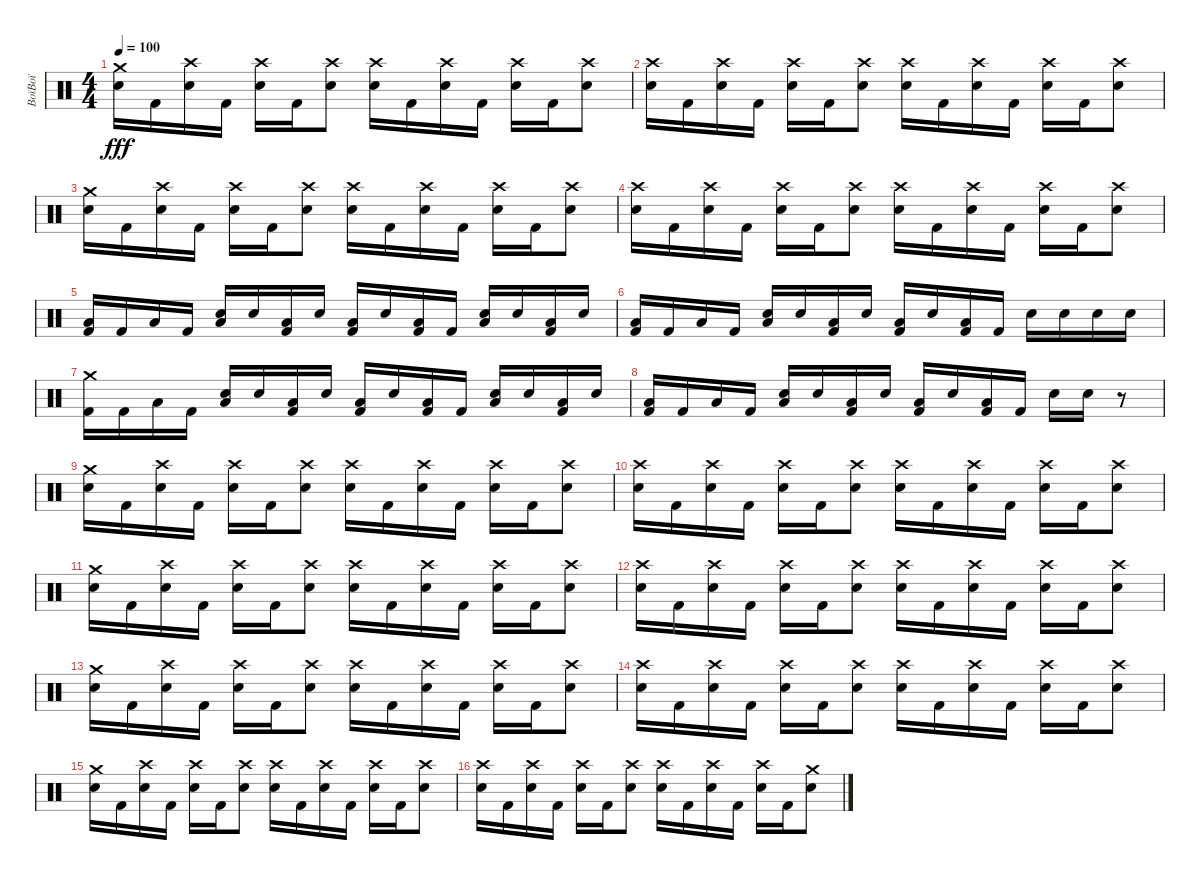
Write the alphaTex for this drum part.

\track ("BoïBoï" "BoïBoï") {instrument percussion}
\staff {score}
\articulation defaults
\ts (4 4)
\tempo 100
\clef neutral
\ks c
("Crash medium (hit)" "Electric Snare (hit)").16{dy fff} "Kick (hit) 2".16 ("Crash high (hit)" "Electric Snare (hit)").16 "Kick (hit) 2".16 ("Crash high (hit)" "Electric Snare (hit)").16 "Kick (hit) 2".16 ("Crash high (hit)" "Electric Snare (hit)").8 ("Crash high (hit)" "Electric Snare (hit)").16 "Kick (hit) 2".16 ("Crash high (hit)" "Electric Snare (hit)").16 "Kick (hit) 2".16 ("Crash high (hit)" "Electric Snare (hit)").16 "Kick (hit) 2".16 ("Crash high (hit)" "Electric Snare (hit)").8 |
("Crash high (hit)" "Electric Snare (hit)").16 "Kick (hit) 2".16 ("Crash high (hit)" "Electric Snare (hit)").16 "Kick (hit) 2".16 ("Crash high (hit)" "Electric Snare (hit)").16 "Kick (hit) 2".16 ("Crash high (hit)" "Electric Snare (hit)").8 ("Crash high (hit)" "Electric Snare (hit)").16 "Kick (hit) 2".16 ("Crash high (hit)" "Electric Snare (hit)").16 "Kick (hit) 2".16 ("Crash high (hit)" "Electric Snare (hit)").16 "Kick (hit) 2".16 ("Crash high (hit)" "Electric Snare (hit)").8 |
("Crash medium (hit)" "Electric Snare (hit)").16 "Kick (hit) 2".16 ("Crash high (hit)" "Electric Snare (hit)").16 "Kick (hit) 2".16 ("Crash high (hit)" "Electric Snare (hit)").16 "Kick (hit) 2".16 ("Crash high (hit)" "Electric Snare (hit)").8 ("Crash high (hit)" "Electric Snare (hit)").16 "Kick (hit) 2".16 ("Crash high (hit)" "Electric Snare (hit)").16 "Kick (hit) 2".16 ("Crash high (hit)" "Electric Snare (hit)").16 "Kick (hit) 2".16 ("Crash high (hit)" "Electric Snare (hit)").8 |
("Crash high (hit)" "Electric Snare (hit)").16 "Kick (hit) 2".16 ("Crash high (hit)" "Electric Snare (hit)").16 "Kick (hit) 2".16 ("Crash high (hit)" "Electric Snare (hit)").16 "Kick (hit) 2".16 ("Crash high (hit)" "Electric Snare (hit)").8 ("Crash high (hit)" "Electric Snare (hit)").16 "Kick (hit) 2".16 ("Crash high (hit)" "Electric Snare (hit)").16 "Kick (hit) 2".16 ("Crash high (hit)" "Electric Snare (hit)").16 "Kick (hit) 2".16 ("Crash high (hit)" "Electric Snare (hit)").8 |
("Low Floor Tom (hit)" "Kick (hit) 2").16 "Kick (hit) 2".16 "Low Floor Tom (hit)".16 "Kick (hit) 2".16 ("Electric Snare (hit)" "Low Floor Tom (hit)").16 "Electric Snare (hit)".16 ("Low Floor Tom (hit)" "Kick (hit) 2").16 "Electric Snare (hit)".16 ("Low Floor Tom (hit)" "Kick (hit) 2").16 "Electric Snare (hit)".16 ("Low Floor Tom (hit)" "Kick (hit) 2").16 "Kick (hit) 2".16 ("Electric Snare (hit)" "Low Floor Tom (hit)").16 "Electric Snare (hit)".16 ("Low Floor Tom (hit)" "Kick (hit) 2").16 "Electric Snare (hit)".16 |
("Low Floor Tom (hit)" "Kick (hit) 2").16 "Kick (hit) 2".16 "Low Floor Tom (hit)".16 "Kick (hit) 2".16 ("Electric Snare (hit)" "Low Floor Tom (hit)").16 "Electric Snare (hit)".16 ("Low Floor Tom (hit)" "Kick (hit) 2").16 "Electric Snare (hit)".16 ("Low Floor Tom (hit)" "Kick (hit) 2").16 "Electric Snare (hit)".16 ("Low Floor Tom (hit)" "Kick (hit) 2").16 "Kick (hit) 2".16 "Electric Snare (hit)".16 "Electric Snare (hit)".16 "Electric Snare (hit)".16 "Electric Snare (hit)".16 |
("Crash medium (hit)" "Kick (hit) 2").16 "Kick (hit) 2".16 "Low Floor Tom (hit)".16 "Kick (hit) 2".16 ("Electric Snare (hit)" "Low Floor Tom (hit)").16 "Electric Snare (hit)".16 ("Low Floor Tom (hit)" "Kick (hit) 2").16 "Electric Snare (hit)".16 ("Low Floor Tom (hit)" "Kick (hit) 2").16 "Electric Snare (hit)".16 ("Low Floor Tom (hit)" "Kick (hit) 2").16 "Kick (hit) 2".16 ("Electric Snare (hit)" "Low Floor Tom (hit)").16 "Electric Snare (hit)".16 ("Low Floor Tom (hit)" "Kick (hit) 2").16 "Electric Snare (hit)".16 |
("Low Floor Tom (hit)" "Kick (hit) 2").16 "Kick (hit) 2".16 "Low Floor Tom (hit)".16 "Kick (hit) 2".16 ("Electric Snare (hit)" "Low Floor Tom (hit)").16 "Electric Snare (hit)".16 ("Low Floor Tom (hit)" "Kick (hit) 2").16 "Electric Snare (hit)".16 ("Low Floor Tom (hit)" "Kick (hit) 2").16 "Electric Snare (hit)".16 ("Low Floor Tom (hit)" "Kick (hit) 2").16 "Kick (hit) 2".16 "Electric Snare (hit)".16 "Electric Snare (hit)".16 r.8 |
("Crash medium (hit)" "Electric Snare (hit)").16 "Kick (hit) 2".16 ("Crash high (hit)" "Electric Snare (hit)").16 "Kick (hit) 2".16 ("Crash high (hit)" "Electric Snare (hit)").16 "Kick (hit) 2".16 ("Crash high (hit)" "Electric Snare (hit)").8 ("Crash high (hit)" "Electric Snare (hit)").16 "Kick (hit) 2".16 ("Crash high (hit)" "Electric Snare (hit)").16 "Kick (hit) 2".16 ("Crash high (hit)" "Electric Snare (hit)").16 "Kick (hit) 2".16 ("Crash high (hit)" "Electric Snare (hit)").8 |
("Crash high (hit)" "Electric Snare (hit)").16 "Kick (hit) 2".16 ("Crash high (hit)" "Electric Snare (hit)").16 "Kick (hit) 2".16 ("Crash high (hit)" "Electric Snare (hit)").16 "Kick (hit) 2".16 ("Crash high (hit)" "Electric Snare (hit)").8 ("Crash high (hit)" "Electric Snare (hit)").16 "Kick (hit) 2".16 ("Crash high (hit)" "Electric Snare (hit)").16 "Kick (hit) 2".16 ("Crash high (hit)" "Electric Snare (hit)").16 "Kick (hit) 2".16 ("Crash high (hit)" "Electric Snare (hit)").8 |
("Crash medium (hit)" "Electric Snare (hit)").16 "Kick (hit) 2".16 ("Crash high (hit)" "Electric Snare (hit)").16 "Kick (hit) 2".16 ("Crash high (hit)" "Electric Snare (hit)").16 "Kick (hit) 2".16 ("Crash high (hit)" "Electric Snare (hit)").8 ("Crash high (hit)" "Electric Snare (hit)").16 "Kick (hit) 2".16 ("Crash high (hit)" "Electric Snare (hit)").16 "Kick (hit) 2".16 ("Crash high (hit)" "Electric Snare (hit)").16 "Kick (hit) 2".16 ("Crash high (hit)" "Electric Snare (hit)").8 |
("Crash high (hit)" "Electric Snare (hit)").16 "Kick (hit) 2".16 ("Crash high (hit)" "Electric Snare (hit)").16 "Kick (hit) 2".16 ("Crash high (hit)" "Electric Snare (hit)").16 "Kick (hit) 2".16 ("Crash high (hit)" "Electric Snare (hit)").8 ("Crash high (hit)" "Electric Snare (hit)").16 "Kick (hit) 2".16 ("Crash high (hit)" "Electric Snare (hit)").16 "Kick (hit) 2".16 ("Crash high (hit)" "Electric Snare (hit)").16 "Kick (hit) 2".16 ("Crash high (hit)" "Electric Snare (hit)").8 |
("Crash medium (hit)" "Electric Snare (hit)").16 "Kick (hit) 2".16 ("Crash high (hit)" "Electric Snare (hit)").16 "Kick (hit) 2".16 ("Crash high (hit)" "Electric Snare (hit)").16 "Kick (hit) 2".16 ("Crash high (hit)" "Electric Snare (hit)").8 ("Crash high (hit)" "Electric Snare (hit)").16 "Kick (hit) 2".16 ("Crash high (hit)" "Electric Snare (hit)").16 "Kick (hit) 2".16 ("Crash high (hit)" "Electric Snare (hit)").16 "Kick (hit) 2".16 ("Crash high (hit)" "Electric Snare (hit)").8 |
("Crash high (hit)" "Electric Snare (hit)").16 "Kick (hit) 2".16 ("Crash high (hit)" "Electric Snare (hit)").16 "Kick (hit) 2".16 ("Crash high (hit)" "Electric Snare (hit)").16 "Kick (hit) 2".16 ("Crash high (hit)" "Electric Snare (hit)").8 ("Crash high (hit)" "Electric Snare (hit)").16 "Kick (hit) 2".16 ("Crash high (hit)" "Electric Snare (hit)").16 "Kick (hit) 2".16 ("Crash high (hit)" "Electric Snare (hit)").16 "Kick (hit) 2".16 ("Crash high (hit)" "Electric Snare (hit)").8 |
("Crash medium (hit)" "Electric Snare (hit)").16 "Kick (hit) 2".16 ("Crash high (hit)" "Electric Snare (hit)").16 "Kick (hit) 2".16 ("Crash high (hit)" "Electric Snare (hit)").16 "Kick (hit) 2".16 ("Crash high (hit)" "Electric Snare (hit)").8 ("Crash high (hit)" "Electric Snare (hit)").16 "Kick (hit) 2".16 ("Crash high (hit)" "Electric Snare (hit)").16 "Kick (hit) 2".16 ("Crash high (hit)" "Electric Snare (hit)").16 "Kick (hit) 2".16 ("Crash high (hit)" "Electric Snare (hit)").8 |
("Crash high (hit)" "Electric Snare (hit)").16 "Kick (hit) 2".16 ("Crash high (hit)" "Electric Snare (hit)").16 "Kick (hit) 2".16 ("Crash high (hit)" "Electric Snare (hit)").16 "Kick (hit) 2".16 ("Crash high (hit)" "Electric Snare (hit)").8 ("Crash high (hit)" "Electric Snare (hit)").16 "Kick (hit) 2".16 ("Crash high (hit)" "Electric Snare (hit)").16 "Kick (hit) 2".16 ("Crash high (hit)" "Electric Snare (hit)").16 "Kick (hit) 2".16 ("Crash medium (hit)" "Electric Snare (hit)").8
